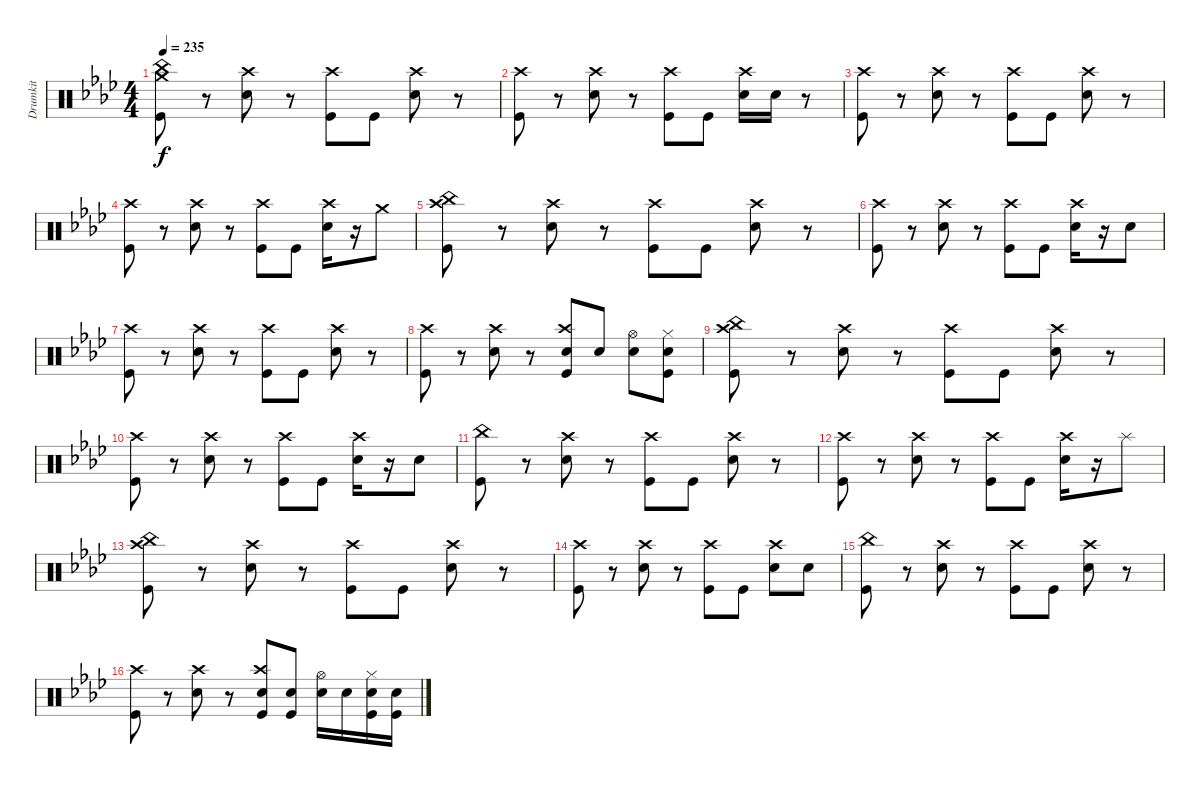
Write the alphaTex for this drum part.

\track ("Drumkit" "Drumkit") {instrument percussion}
\staff {score}
\articulation defaults
\ts (4 4)
\tempo 235
\clef neutral
\ks ab
("Crash medium (hit)" "China (hit)" "Kick (hit)").8{dy f} r.8 ("Crash high (hit)" "Electric Snare (hit)").8 r.8 ("Crash high (hit)" "Kick (hit)").8 "Kick (hit)".8 ("Crash high (hit)" "Electric Snare (hit)").8 r.8 |
("Crash high (hit)" "Kick (hit)").8 r.8 ("Crash high (hit)" "Electric Snare (hit)").8 r.8 ("Crash high (hit)" "Kick (hit)").8 "Kick (hit)".8 ("Crash high (hit)" "Electric Snare (hit)").16 "Electric Snare (hit)".16 r.8 |
("Crash high (hit)" "Kick (hit)").8 r.8 ("Crash high (hit)" "Electric Snare (hit)").8 r.8 ("Crash high (hit)" "Kick (hit)").8 "Kick (hit)".8 ("Crash high (hit)" "Electric Snare (hit)").8 r.8 |
("Crash high (hit)" "Kick (hit)").8 r.8 ("Crash high (hit)" "Electric Snare (hit)").8 r.8 ("Crash high (hit)" "Kick (hit)").8 "Kick (hit)".8 ("Crash high (hit)" "Electric Snare (hit)").16 r.16 "Crash medium (hit)".8 |
("Crash high (hit)" "China (hit)" "Kick (hit)").8 r.8 ("Crash high (hit)" "Electric Snare (hit)").8 r.8 ("Crash high (hit)" "Kick (hit)").8 "Kick (hit)".8 ("Crash high (hit)" "Electric Snare (hit)").8 r.8 |
("Crash high (hit)" "Kick (hit)").8 r.8 ("Crash high (hit)" "Electric Snare (hit)").8 r.8 ("Crash high (hit)" "Kick (hit)").8 "Kick (hit)".8 ("Crash high (hit)" "Electric Snare (hit)").16 r.16 "Electric Snare (hit)".8 |
("Crash high (hit)" "Kick (hit)").8 r.8 ("Crash high (hit)" "Electric Snare (hit)").8 r.8 ("Crash high (hit)" "Kick (hit)").8 "Kick (hit)".8 ("Crash high (hit)" "Electric Snare (hit)").8 r.8 |
("Crash high (hit)" "Kick (hit)").8 r.8 ("Crash high (hit)" "Electric Snare (hit)").8 r.8 ("Crash high (hit)" "Electric Snare (hit)" "Kick (hit)").8 "Electric Snare (hit)".8 ("Hi-Hat (open)" "Electric Snare (hit)").8 ("Hi-Hat (closed)" "Electric Snare (hit)" "Kick (hit)").8 |
("Crash high (hit)" "China (hit)" "Kick (hit)").8 r.8 ("Crash high (hit)" "Electric Snare (hit)").8 r.8 ("Crash high (hit)" "Kick (hit)").8 "Kick (hit)".8 ("Crash high (hit)" "Electric Snare (hit)").8 r.8 |
("Crash high (hit)" "Kick (hit)").8 r.8 ("Crash high (hit)" "Electric Snare (hit)").8 r.8 ("Crash high (hit)" "Kick (hit)").8 "Kick (hit)".8 ("Crash high (hit)" "Electric Snare (hit)").16 r.16 "Electric Snare (hit)".8 |
("China (hit)" "Kick (hit)").8 r.8 ("Crash high (hit)" "Electric Snare (hit)").8 r.8 ("Crash high (hit)" "Kick (hit)").8 "Kick (hit)".8 ("Crash high (hit)" "Electric Snare (hit)").8 r.8 |
("Crash high (hit)" "Kick (hit)").8 r.8 ("Crash high (hit)" "Electric Snare (hit)").8 r.8 ("Crash high (hit)" "Kick (hit)").8 "Kick (hit)".8 ("Crash high (hit)" "Electric Snare (hit)").16 r.16 "Splash (hit)".8 |
("Crash high (hit)" "China (hit)" "Kick (hit)").8 r.8 ("Crash high (hit)" "Electric Snare (hit)").8 r.8 ("Crash high (hit)" "Kick (hit)").8 "Kick (hit)".8 ("Crash high (hit)" "Electric Snare (hit)").8 r.8 |
("Crash high (hit)" "Kick (hit)").8 r.8 ("Crash high (hit)" "Electric Snare (hit)").8 r.8 ("Crash high (hit)" "Kick (hit)").8 "Kick (hit)".8 ("Crash high (hit)" "Electric Snare (hit)").8 "Electric Snare (hit)".8 |
("China (hit)" "Kick (hit)").8 r.8 ("Crash high (hit)" "Electric Snare (hit)").8 r.8 ("Crash high (hit)" "Kick (hit)").8 "Kick (hit)".8 ("Crash high (hit)" "Electric Snare (hit)").8 r.8 |
("Crash high (hit)" "Kick (hit)").8 r.8 ("Crash high (hit)" "Electric Snare (hit)").8 r.8 ("Crash high (hit)" "Electric Snare (hit)" "Kick (hit)").8 ("Electric Snare (hit)" "Kick (hit)").8 ("Hi-Hat (open)" "Electric Snare (hit)").16 "Electric Snare (hit)".16 ("Hi-Hat (closed)" "Electric Snare (hit)" "Kick (hit)").16 ("Electric Snare (hit)" "Kick (hit)").16
